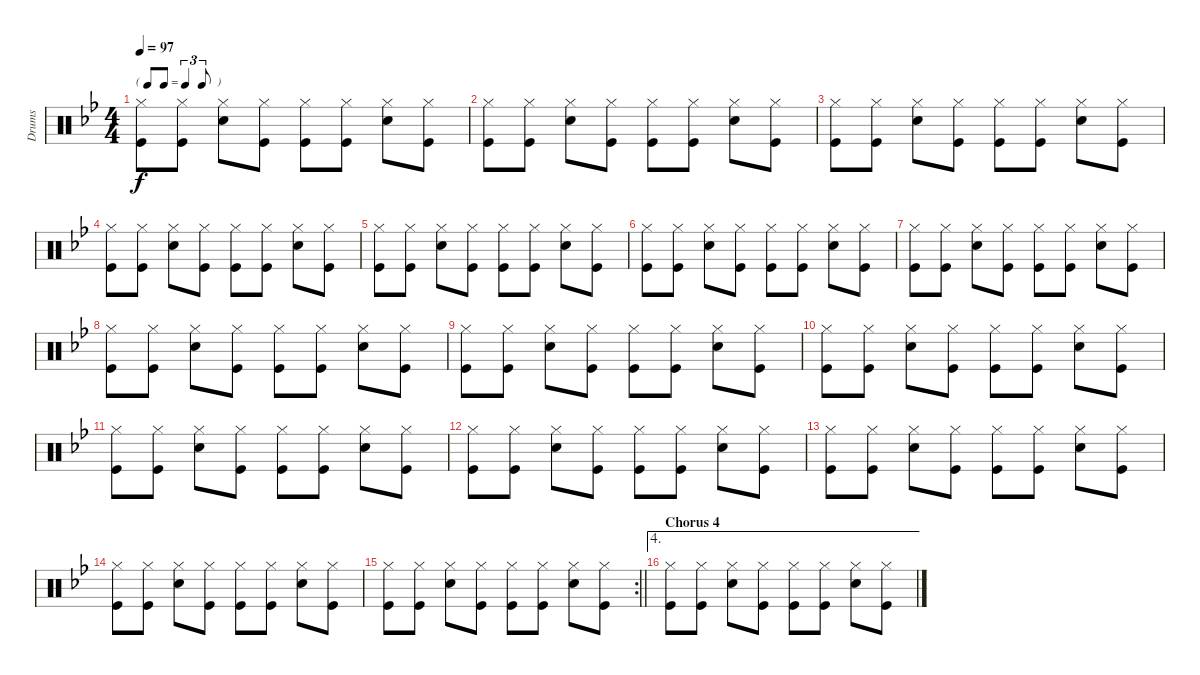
\track ("Drums" "Drums") {instrument percussion}
\staff {score}
\articulation defaults
\ts (4 4)
\tf triplet8th
\tempo 97
\clef neutral
\ks bb
("Kick (hit)" "Hi-Hat (closed)").8{dy f} ("Kick (hit)" "Hi-Hat (closed)").8 ("Snare (hit) 2" "Hi-Hat (closed)").8 ("Kick (hit)" "Hi-Hat (closed)").8 ("Kick (hit)" "Hi-Hat (closed)").8 ("Kick (hit)" "Hi-Hat (closed)").8 ("Snare (hit) 2" "Hi-Hat (closed)").8 ("Kick (hit)" "Hi-Hat (closed)").8 |
("Kick (hit)" "Hi-Hat (closed)").8 ("Kick (hit)" "Hi-Hat (closed)").8 ("Snare (hit) 2" "Hi-Hat (closed)").8 ("Kick (hit)" "Hi-Hat (closed)").8 ("Kick (hit)" "Hi-Hat (closed)").8 ("Kick (hit)" "Hi-Hat (closed)").8 ("Snare (hit) 2" "Hi-Hat (closed)").8 ("Kick (hit)" "Hi-Hat (closed)").8 |
("Kick (hit)" "Hi-Hat (closed)").8 ("Kick (hit)" "Hi-Hat (closed)").8 ("Snare (hit) 2" "Hi-Hat (closed)").8 ("Kick (hit)" "Hi-Hat (closed)").8 ("Kick (hit)" "Hi-Hat (closed)").8 ("Kick (hit)" "Hi-Hat (closed)").8 ("Snare (hit) 2" "Hi-Hat (closed)").8 ("Kick (hit)" "Hi-Hat (closed)").8 |
("Kick (hit)" "Hi-Hat (closed)").8 ("Kick (hit)" "Hi-Hat (closed)").8 ("Snare (hit) 2" "Hi-Hat (closed)").8 ("Kick (hit)" "Hi-Hat (closed)").8 ("Kick (hit)" "Hi-Hat (closed)").8 ("Kick (hit)" "Hi-Hat (closed)").8 ("Snare (hit) 2" "Hi-Hat (closed)").8 ("Kick (hit)" "Hi-Hat (closed)").8 |
("Kick (hit)" "Hi-Hat (closed)").8 ("Kick (hit)" "Hi-Hat (closed)").8 ("Snare (hit) 2" "Hi-Hat (closed)").8 ("Kick (hit)" "Hi-Hat (closed)").8 ("Kick (hit)" "Hi-Hat (closed)").8 ("Kick (hit)" "Hi-Hat (closed)").8 ("Snare (hit) 2" "Hi-Hat (closed)").8 ("Kick (hit)" "Hi-Hat (closed)").8 |
("Kick (hit)" "Hi-Hat (closed)").8 ("Kick (hit)" "Hi-Hat (closed)").8 ("Snare (hit) 2" "Hi-Hat (closed)").8 ("Kick (hit)" "Hi-Hat (closed)").8 ("Kick (hit)" "Hi-Hat (closed)").8 ("Kick (hit)" "Hi-Hat (closed)").8 ("Snare (hit) 2" "Hi-Hat (closed)").8 ("Kick (hit)" "Hi-Hat (closed)").8 |
("Kick (hit)" "Hi-Hat (closed)").8 ("Kick (hit)" "Hi-Hat (closed)").8 ("Snare (hit) 2" "Hi-Hat (closed)").8 ("Kick (hit)" "Hi-Hat (closed)").8 ("Kick (hit)" "Hi-Hat (closed)").8 ("Kick (hit)" "Hi-Hat (closed)").8 ("Snare (hit) 2" "Hi-Hat (closed)").8 ("Kick (hit)" "Hi-Hat (closed)").8 |
("Kick (hit)" "Hi-Hat (closed)").8 ("Kick (hit)" "Hi-Hat (closed)").8 ("Snare (hit) 2" "Hi-Hat (closed)").8 ("Kick (hit)" "Hi-Hat (closed)").8 ("Kick (hit)" "Hi-Hat (closed)").8 ("Kick (hit)" "Hi-Hat (closed)").8 ("Snare (hit) 2" "Hi-Hat (closed)").8 ("Kick (hit)" "Hi-Hat (closed)").8 |
("Kick (hit)" "Hi-Hat (closed)").8 ("Kick (hit)" "Hi-Hat (closed)").8 ("Snare (hit) 2" "Hi-Hat (closed)").8 ("Kick (hit)" "Hi-Hat (closed)").8 ("Kick (hit)" "Hi-Hat (closed)").8 ("Kick (hit)" "Hi-Hat (closed)").8 ("Snare (hit) 2" "Hi-Hat (closed)").8 ("Kick (hit)" "Hi-Hat (closed)").8 |
("Kick (hit)" "Hi-Hat (closed)").8 ("Kick (hit)" "Hi-Hat (closed)").8 ("Snare (hit) 2" "Hi-Hat (closed)").8 ("Kick (hit)" "Hi-Hat (closed)").8 ("Kick (hit)" "Hi-Hat (closed)").8 ("Kick (hit)" "Hi-Hat (closed)").8 ("Snare (hit) 2" "Hi-Hat (closed)").8 ("Kick (hit)" "Hi-Hat (closed)").8 |
("Kick (hit)" "Hi-Hat (closed)").8 ("Kick (hit)" "Hi-Hat (closed)").8 ("Snare (hit) 2" "Hi-Hat (closed)").8 ("Kick (hit)" "Hi-Hat (closed)").8 ("Kick (hit)" "Hi-Hat (closed)").8 ("Kick (hit)" "Hi-Hat (closed)").8 ("Snare (hit) 2" "Hi-Hat (closed)").8 ("Kick (hit)" "Hi-Hat (closed)").8 |
("Kick (hit)" "Hi-Hat (closed)").8 ("Kick (hit)" "Hi-Hat (closed)").8 ("Snare (hit) 2" "Hi-Hat (closed)").8 ("Kick (hit)" "Hi-Hat (closed)").8 ("Kick (hit)" "Hi-Hat (closed)").8 ("Kick (hit)" "Hi-Hat (closed)").8 ("Snare (hit) 2" "Hi-Hat (closed)").8 ("Kick (hit)" "Hi-Hat (closed)").8 |
("Kick (hit)" "Hi-Hat (closed)").8 ("Kick (hit)" "Hi-Hat (closed)").8 ("Snare (hit) 2" "Hi-Hat (closed)").8 ("Kick (hit)" "Hi-Hat (closed)").8 ("Kick (hit)" "Hi-Hat (closed)").8 ("Kick (hit)" "Hi-Hat (closed)").8 ("Snare (hit) 2" "Hi-Hat (closed)").8 ("Kick (hit)" "Hi-Hat (closed)").8 |
("Kick (hit)" "Hi-Hat (closed)").8 ("Kick (hit)" "Hi-Hat (closed)").8 ("Snare (hit) 2" "Hi-Hat (closed)").8 ("Kick (hit)" "Hi-Hat (closed)").8 ("Kick (hit)" "Hi-Hat (closed)").8 ("Kick (hit)" "Hi-Hat (closed)").8 ("Snare (hit) 2" "Hi-Hat (closed)").8 ("Kick (hit)" "Hi-Hat (closed)").8 |
\rc 2
\barLineRight lightlight
("Kick (hit)" "Hi-Hat (closed)").8 ("Kick (hit)" "Hi-Hat (closed)").8 ("Snare (hit) 2" "Hi-Hat (closed)").8 ("Kick (hit)" "Hi-Hat (closed)").8 ("Kick (hit)" "Hi-Hat (closed)").8 ("Kick (hit)" "Hi-Hat (closed)").8 ("Snare (hit) 2" "Hi-Hat (closed)").8 ("Kick (hit)" "Hi-Hat (closed)").8 |
\ae 4
\section ("" "Chorus 4")
("Kick (hit)" "Hi-Hat (closed)").8 ("Kick (hit)" "Hi-Hat (closed)").8 ("Snare (hit) 2" "Hi-Hat (closed)").8 ("Kick (hit)" "Hi-Hat (closed)").8 ("Kick (hit)" "Hi-Hat (closed)").8 ("Kick (hit)" "Hi-Hat (closed)").8 ("Snare (hit) 2" "Hi-Hat (closed)").8 ("Kick (hit)" "Hi-Hat (closed)").8
